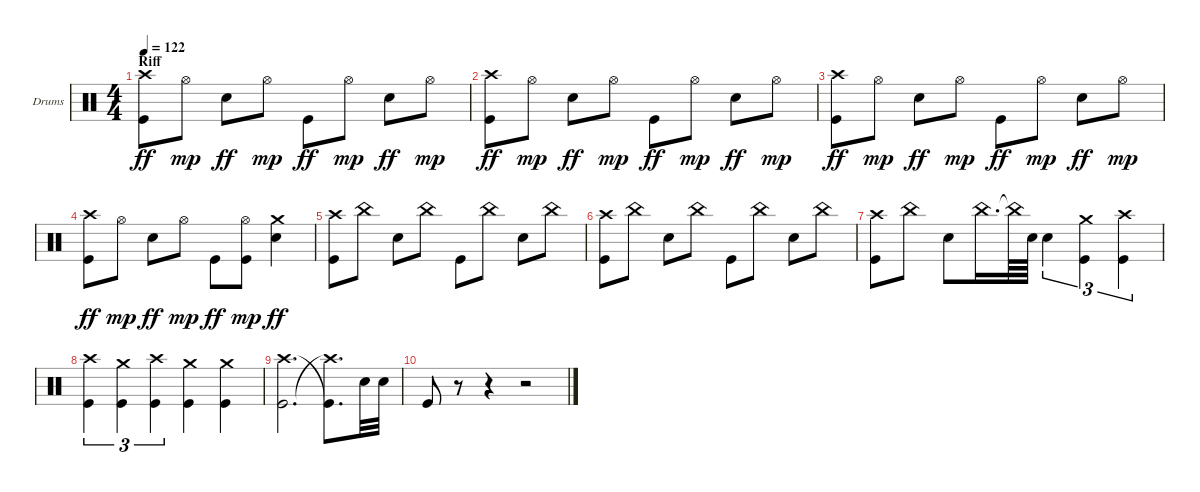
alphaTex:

\bracketExtendMode groupsimilarinstruments
\firstSystemTrackNameOrientation horizontal
\otherSystemsTrackNameOrientation horizontal
\track ("Brent Fitz" "Drums") {instrument percussion}
\staff {score}
\articulation defaults
\ts (4 4)
\section ("" "Riff")
\tempo 122
\clef neutral
\ks c
("Kick (hit)" "Crash high (hit)").8{dy ff} "Hi-Hat (open)".8{dy mp} "Snare (hit) 2".8{dy ff} "Hi-Hat (open)".8{dy mp} "Kick (hit)".8{dy ff} "Hi-Hat (open)".8{dy mp} "Snare (hit) 2".8{dy ff} "Hi-Hat (open)".8{dy mp} |
("Kick (hit)" "Crash high (hit)").8{dy ff} "Hi-Hat (open)".8{dy mp} "Snare (hit) 2".8{dy ff} "Hi-Hat (open)".8{dy mp} "Kick (hit)".8{dy ff} "Hi-Hat (open)".8{dy mp} "Snare (hit) 2".8{dy ff} "Hi-Hat (open)".8{dy mp} |
("Kick (hit)" "Crash high (hit)").8{dy ff} "Hi-Hat (open)".8{dy mp} "Snare (hit) 2".8{dy ff} "Hi-Hat (open)".8{dy mp} "Kick (hit)".8{dy ff} "Hi-Hat (open)".8{dy mp} "Snare (hit) 2".8{dy ff} "Hi-Hat (open)".8{dy mp} |
("Kick (hit)" "Crash high (hit)").8{dy ff} "Hi-Hat (open)".8{dy mp} "Snare (hit) 2".8{dy ff} "Hi-Hat (open)".8{dy mp} "Kick (hit)".8{dy ff} ("Hi-Hat (open)" "Kick (hit)").8{dy mp} ("Snare (hit) 2" "Crash medium (hit)").4{dy ff} |
("Kick (hit)" "Crash high (hit)").8 "China (hit)".8 "Snare (hit) 2".8 "China (hit)".8 "Kick (hit)".8 "China (hit)".8 "Snare (hit) 2".8 "China (hit)".8 |
("Kick (hit)" "Crash high (hit)").8 "China (hit)".8 "Snare (hit) 2".8 "China (hit)".8 "Kick (hit)".8 "China (hit)".8 "Snare (hit) 2".8 "China (hit)".8 |
("Kick (hit)" "Crash high (hit)").8 "China (hit)".8 "Snare (hit) 2".8 "China (hit)".16{d} "China (hit)"{t}.64 "Snare (hit) 2".64 "Snare (hit) 2".4{tu (3 2)} ("Kick (hit)" "Crash medium (hit)").4{tu (3 2)} ("Kick (hit)" "Crash high (hit)").4{tu (3 2)} |
("Kick (hit)" "Crash high (hit)").4{tu (3 2)} ("Kick (hit)" "Crash medium (hit)").4{tu (3 2)} ("Kick (hit)" "Crash high (hit)").4{tu (3 2)} ("Kick (hit)" "Crash medium (hit)").4 ("Kick (hit)" "Crash medium (hit)").4 |
("Kick (hit)" "Crash high (hit)").2{d} ("Crash high (hit)"{t} "Kick (hit)"{t}).8{d} "Snare (hit) 2".32 "Snare (hit) 2".32 |
"Kick (hit)".8 r.8 r.4 r.2
